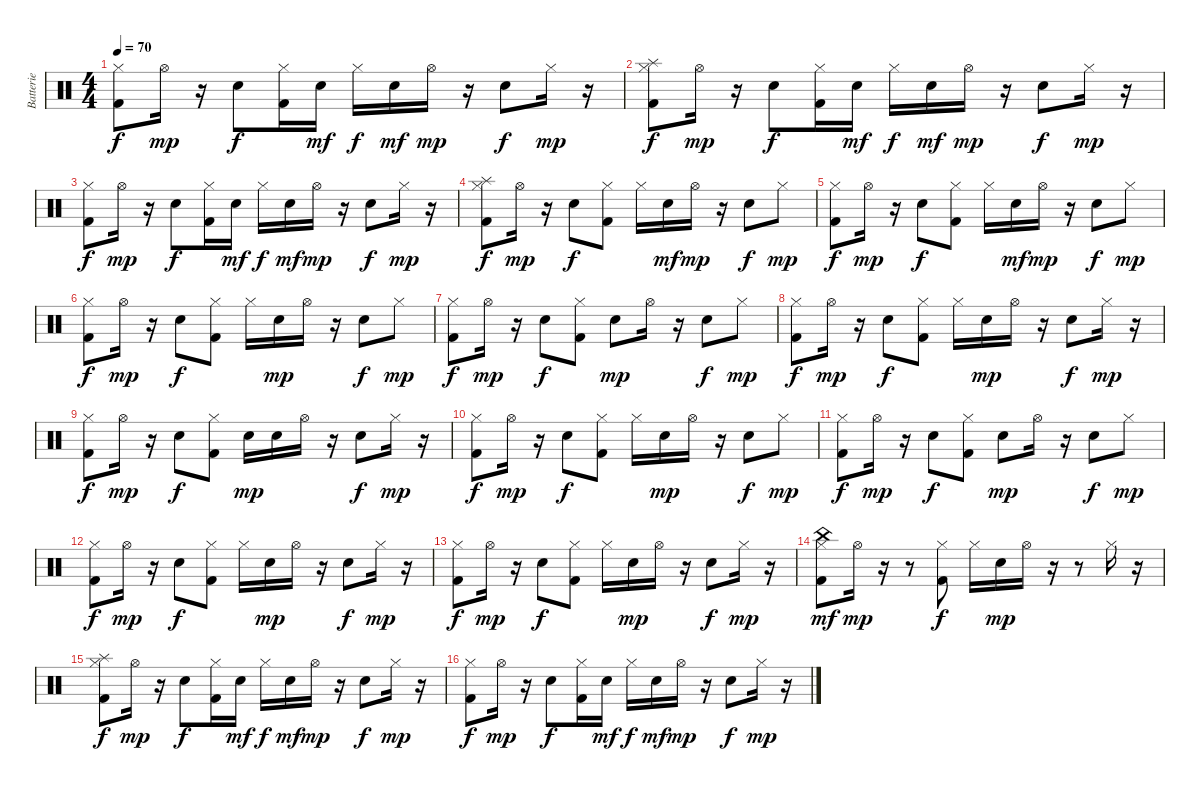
\track ("Batterie" "Batterie") {instrument percussion}
\staff {score}
\articulation defaults
\ts (4 4)
\tempo 70
\clef neutral
\ks c
("Kick (hit) 2" "Hi-Hat (closed)").8{dy f} "Hi-Hat (open)".16{dy mp} r.16 "Electric Snare (hit)".8{dy f} ("Kick (hit) 2" "Hi-Hat (closed)").16 "Electric Snare (hit)".16{dy mf} "Hi-Hat (closed)".16{dy f} "Electric Snare (hit)".16{dy mf} "Hi-Hat (open)".16{dy mp} r.16 "Electric Snare (hit)".8{dy f} "Hi-Hat (closed)".16{dy mp} r.16 |
("Kick (hit) 2" "Hi-Hat (closed)" "Splash (hit)").8{dy f} "Hi-Hat (open)".16{dy mp} r.16 "Electric Snare (hit)".8{dy f} ("Kick (hit) 2" "Hi-Hat (closed)").16 "Electric Snare (hit)".16{dy mf} "Hi-Hat (closed)".16{dy f} "Electric Snare (hit)".16{dy mf} "Hi-Hat (open)".16{dy mp} r.16 "Electric Snare (hit)".8{dy f} "Hi-Hat (closed)".16{dy mp} r.16 |
("Kick (hit) 2" "Hi-Hat (closed)").8{dy f} "Hi-Hat (open)".16{dy mp} r.16 "Electric Snare (hit)".8{dy f} ("Kick (hit) 2" "Hi-Hat (closed)").16 "Electric Snare (hit)".16{dy mf} "Hi-Hat (closed)".16{dy f} "Electric Snare (hit)".16{dy mf} "Hi-Hat (open)".16{dy mp} r.16 "Electric Snare (hit)".8{dy f} "Hi-Hat (closed)".16{dy mp} r.16 |
("Kick (hit) 2" "Hi-Hat (closed)" "Splash (hit)").8{dy f} "Hi-Hat (open)".16{dy mp} r.16 "Electric Snare (hit)".8{dy f} ("Kick (hit) 2" "Hi-Hat (closed)").8 "Hi-Hat (closed)".16 "Electric Snare (hit)".16{dy mf} "Hi-Hat (open)".16{dy mp} r.16 "Electric Snare (hit)".8{dy f} "Hi-Hat (closed)".8{dy mp} |
("Kick (hit) 2" "Hi-Hat (closed)").8{dy f} "Hi-Hat (open)".16{dy mp} r.16 "Electric Snare (hit)".8{dy f} ("Kick (hit) 2" "Hi-Hat (closed)").8 "Hi-Hat (closed)".16 "Electric Snare (hit)".16{dy mf} "Hi-Hat (open)".16{dy mp} r.16 "Electric Snare (hit)".8{dy f} "Hi-Hat (closed)".8{dy mp} |
("Kick (hit) 2" "Hi-Hat (closed)").8{dy f} "Hi-Hat (open)".16{dy mp} r.16 "Electric Snare (hit)".8{dy f} ("Kick (hit) 2" "Hi-Hat (closed)").8 "Hi-Hat (closed)".16 "Electric Snare (hit)".16{dy mp} "Hi-Hat (open)".16 r.16 "Electric Snare (hit)".8{dy f} "Hi-Hat (closed)".8{dy mp} |
("Kick (hit) 2" "Hi-Hat (closed)").8{dy f} "Hi-Hat (open)".16{dy mp} r.16 "Electric Snare (hit)".8{dy f} ("Kick (hit) 2" "Hi-Hat (closed)").8 "Electric Snare (hit)".8{dy mp} "Hi-Hat (open)".16 r.16 "Electric Snare (hit)".8{dy f} "Hi-Hat (closed)".8{dy mp} |
("Kick (hit) 2" "Hi-Hat (closed)").8{dy f} "Hi-Hat (open)".16{dy mp} r.16 "Electric Snare (hit)".8{dy f} ("Kick (hit) 2" "Hi-Hat (closed)").8 "Hi-Hat (closed)".16 "Electric Snare (hit)".16{dy mp} "Hi-Hat (open)".16 r.16 "Electric Snare (hit)".8{dy f} "Hi-Hat (closed)".16{dy mp} r.16 |
("Kick (hit) 2" "Hi-Hat (closed)").8{dy f} "Hi-Hat (open)".16{dy mp} r.16 "Electric Snare (hit)".8{dy f} ("Kick (hit) 2" "Hi-Hat (closed)").8 "Electric Snare (hit)".16{dy mp} "Electric Snare (hit)".16 "Hi-Hat (open)".16 r.16 "Electric Snare (hit)".8{dy f} "Hi-Hat (closed)".16{dy mp} r.16 |
("Kick (hit) 2" "Hi-Hat (closed)").8{dy f} "Hi-Hat (open)".16{dy mp} r.16 "Electric Snare (hit)".8{dy f} ("Kick (hit) 2" "Hi-Hat (closed)").8 "Hi-Hat (closed)".16 "Electric Snare (hit)".16{dy mp} "Hi-Hat (open)".16 r.16 "Electric Snare (hit)".8{dy f} "Hi-Hat (closed)".8{dy mp} |
("Kick (hit) 2" "Hi-Hat (closed)").8{dy f} "Hi-Hat (open)".16{dy mp} r.16 "Electric Snare (hit)".8{dy f} ("Kick (hit) 2" "Hi-Hat (closed)").8 "Electric Snare (hit)".8{dy mp} "Hi-Hat (open)".16 r.16 "Electric Snare (hit)".8{dy f} "Hi-Hat (closed)".8{dy mp} |
("Kick (hit) 2" "Hi-Hat (closed)").8{dy f} "Hi-Hat (open)".16{dy mp} r.16 "Electric Snare (hit)".8{dy f} ("Kick (hit) 2" "Hi-Hat (closed)").8 "Hi-Hat (closed)".16 "Electric Snare (hit)".16{dy mp} "Hi-Hat (open)".16 r.16 "Electric Snare (hit)".8{dy f} "Hi-Hat (closed)".16{dy mp} r.16 |
("Kick (hit) 2" "Hi-Hat (closed)").8{dy f} "Hi-Hat (open)".16{dy mp} r.16 "Electric Snare (hit)".8{dy f} ("Kick (hit) 2" "Hi-Hat (closed)").8 "Hi-Hat (closed)".16 "Electric Snare (hit)".16{dy mp} "Hi-Hat (open)".16 r.16 "Electric Snare (hit)".8{dy f} "Hi-Hat (closed)".16{dy mp} r.16 |
("Kick (hit) 2" "Hi-Hat (closed)" "China (hit)").8{dy mf} "Hi-Hat (open)".16{dy mp} r.16 r.8 ("Kick (hit) 2" "Hi-Hat (closed)").8{dy f} "Hi-Hat (closed)".16 "Electric Snare (hit)".16{dy mp} "Hi-Hat (open)".16 r.16 r.8 "Hi-Hat (closed)".16 r.16 |
("Kick (hit) 2" "Hi-Hat (closed)" "Splash (hit)").8{dy f} "Hi-Hat (open)".16{dy mp} r.16 "Electric Snare (hit)".8{dy f} ("Kick (hit) 2" "Hi-Hat (closed)").16 "Electric Snare (hit)".16{dy mf} "Hi-Hat (closed)".16{dy f} "Electric Snare (hit)".16{dy mf} "Hi-Hat (open)".16{dy mp} r.16 "Electric Snare (hit)".8{dy f} "Hi-Hat (closed)".16{dy mp} r.16 |
("Kick (hit) 2" "Hi-Hat (closed)").8{dy f} "Hi-Hat (open)".16{dy mp} r.16 "Electric Snare (hit)".8{dy f} ("Kick (hit) 2" "Hi-Hat (closed)").16 "Electric Snare (hit)".16{dy mf} "Hi-Hat (closed)".16{dy f} "Electric Snare (hit)".16{dy mf} "Hi-Hat (open)".16{dy mp} r.16 "Electric Snare (hit)".8{dy f} "Hi-Hat (closed)".16{dy mp} r.16
